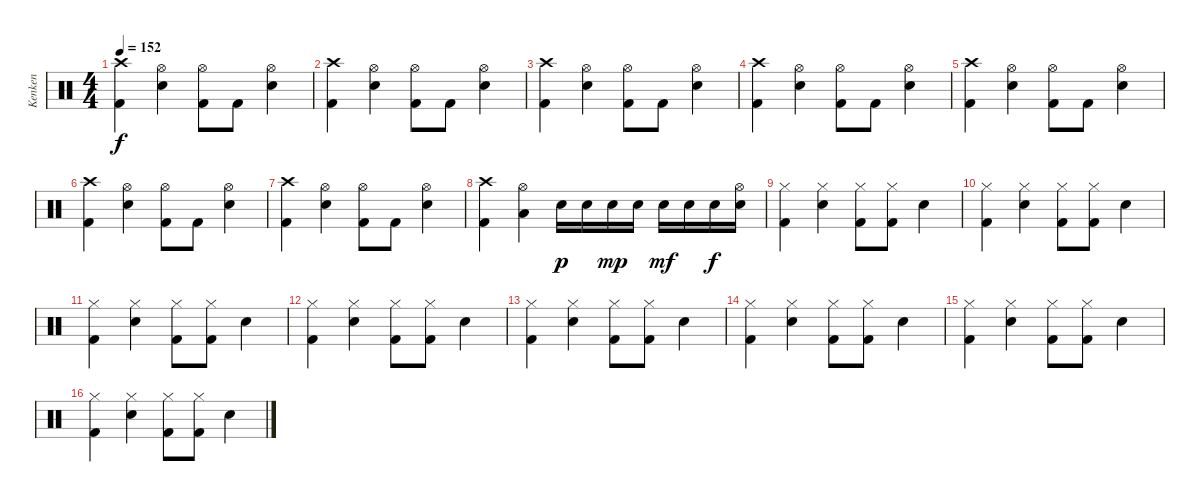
\track ("Kenken" "Kenken") {instrument percussion}
\staff {score}
\articulation defaults
\ts (4 4)
\tempo 152
\clef neutral
\ks c
("Crash high (hit)" "Kick (hit) 2").4{dy f} ("Hi-Hat (open)" "Electric Snare (hit)").4 ("Hi-Hat (open)" "Kick (hit) 2").8 "Kick (hit) 2".8 ("Hi-Hat (open)" "Electric Snare (hit)").4 |
("Crash high (hit)" "Kick (hit) 2").4 ("Hi-Hat (open)" "Electric Snare (hit)").4 ("Hi-Hat (open)" "Kick (hit) 2").8 "Kick (hit) 2".8 ("Hi-Hat (open)" "Electric Snare (hit)").4 |
("Crash high (hit)" "Kick (hit) 2").4 ("Hi-Hat (open)" "Electric Snare (hit)").4 ("Hi-Hat (open)" "Kick (hit) 2").8 "Kick (hit) 2".8 ("Hi-Hat (open)" "Electric Snare (hit)").4 |
("Crash high (hit)" "Kick (hit) 2").4 ("Hi-Hat (open)" "Electric Snare (hit)").4 ("Hi-Hat (open)" "Kick (hit) 2").8 "Kick (hit) 2".8 ("Hi-Hat (open)" "Electric Snare (hit)").4 |
("Crash high (hit)" "Kick (hit) 2").4 ("Hi-Hat (open)" "Electric Snare (hit)").4 ("Hi-Hat (open)" "Kick (hit) 2").8 "Kick (hit) 2".8 ("Hi-Hat (open)" "Electric Snare (hit)").4 |
("Crash high (hit)" "Kick (hit) 2").4 ("Hi-Hat (open)" "Electric Snare (hit)").4 ("Hi-Hat (open)" "Kick (hit) 2").8 "Kick (hit) 2".8 ("Hi-Hat (open)" "Electric Snare (hit)").4 |
("Crash high (hit)" "Kick (hit) 2").4 ("Hi-Hat (open)" "Electric Snare (hit)").4 ("Hi-Hat (open)" "Kick (hit) 2").8 "Kick (hit) 2".8 ("Hi-Hat (open)" "Electric Snare (hit)").4 |
("Crash high (hit)" "Kick (hit) 2").4 ("Hi-Hat (open)" "Low Tom (hit)").4 "Electric Snare (hit)".16{dy p} "Electric Snare (hit)".16 "Electric Snare (hit)".16{dy mp} "Electric Snare (hit)".16 "Electric Snare (hit)".16{dy mf} "Electric Snare (hit)".16 "Electric Snare (hit)".16{dy f} ("Hi-Hat (open)" "Electric Snare (hit)").16 |
("Hi-Hat (closed)" "Kick (hit) 2").4 ("Hi-Hat (closed)" "Electric Snare (hit)").4 ("Hi-Hat (closed)" "Kick (hit) 2").8 ("Hi-Hat (closed)" "Kick (hit) 2").8 "Electric Snare (hit)".4 |
("Hi-Hat (closed)" "Kick (hit) 2").4 ("Hi-Hat (closed)" "Electric Snare (hit)").4 ("Hi-Hat (closed)" "Kick (hit) 2").8 ("Hi-Hat (closed)" "Kick (hit) 2").8 "Electric Snare (hit)".4 |
("Hi-Hat (closed)" "Kick (hit) 2").4 ("Hi-Hat (closed)" "Electric Snare (hit)").4 ("Hi-Hat (closed)" "Kick (hit) 2").8 ("Hi-Hat (closed)" "Kick (hit) 2").8 "Electric Snare (hit)".4 |
("Hi-Hat (closed)" "Kick (hit) 2").4 ("Hi-Hat (closed)" "Electric Snare (hit)").4 ("Hi-Hat (closed)" "Kick (hit) 2").8 ("Hi-Hat (closed)" "Kick (hit) 2").8 "Electric Snare (hit)".4 |
("Hi-Hat (closed)" "Kick (hit) 2").4 ("Hi-Hat (closed)" "Electric Snare (hit)").4 ("Hi-Hat (closed)" "Kick (hit) 2").8 ("Hi-Hat (closed)" "Kick (hit) 2").8 "Electric Snare (hit)".4 |
("Hi-Hat (closed)" "Kick (hit) 2").4 ("Hi-Hat (closed)" "Electric Snare (hit)").4 ("Hi-Hat (closed)" "Kick (hit) 2").8 ("Hi-Hat (closed)" "Kick (hit) 2").8 "Electric Snare (hit)".4 |
("Hi-Hat (closed)" "Kick (hit) 2").4 ("Hi-Hat (closed)" "Electric Snare (hit)").4 ("Hi-Hat (closed)" "Kick (hit) 2").8 ("Hi-Hat (closed)" "Kick (hit) 2").8 "Electric Snare (hit)".4 |
("Hi-Hat (closed)" "Kick (hit) 2").4 ("Hi-Hat (closed)" "Electric Snare (hit)").4 ("Hi-Hat (closed)" "Kick (hit) 2").8 ("Hi-Hat (closed)" "Kick (hit) 2").8 "Electric Snare (hit)".4
